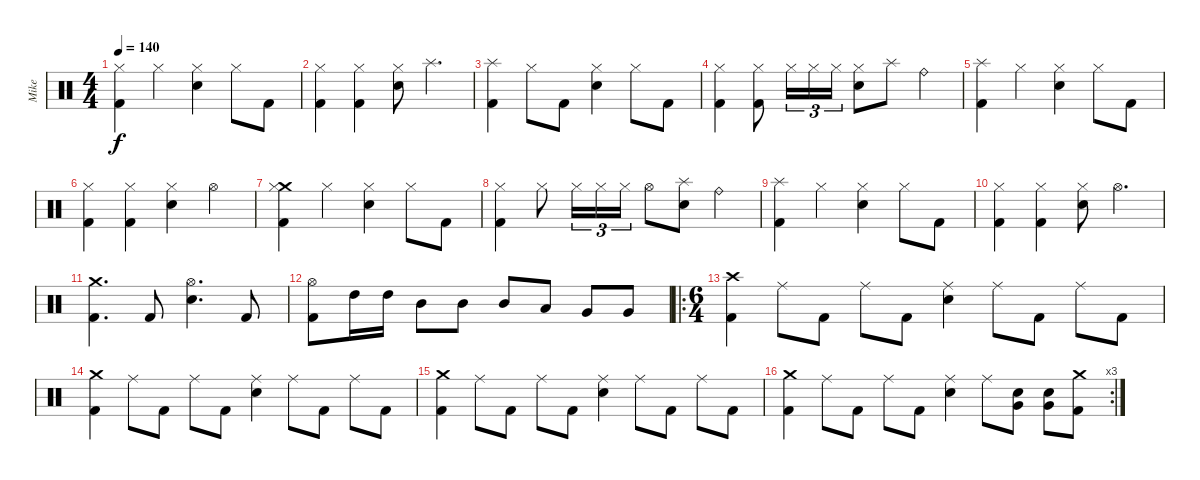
\track ("Mike" "Mike") {instrument percussion}
\staff {score}
\articulation defaults
\ts (4 4)
\tempo 140
\clef neutral
\ks c
("Kick (hit) 2" "Hi-Hat (closed)").4{dy f} "Hi-Hat (closed)".4 ("Electric Snare (hit)" "Hi-Hat (closed)").4 "Hi-Hat (closed)".8 "Kick (hit) 2".8 |
("Kick (hit) 2" "Hi-Hat (closed)").4 ("Kick (hit) 2" "Hi-Hat (closed)").4 ("Electric Snare (hit)" "Hi-Hat (closed)").8 "Splash (hit)".4{d} |
("Kick (hit) 2" "Splash (hit)").4 "Hi-Hat (closed)".8 "Kick (hit) 2".8 ("Electric Snare (hit)" "Hi-Hat (closed)").4 "Hi-Hat (closed)".8 "Kick (hit) 2".8 |
("Kick (hit) 2" "Hi-Hat (closed)").4 ("Kick (hit) 2" "Hi-Hat (closed)").8 "Hi-Hat (closed)".16{tu (3 2)} "Hi-Hat (closed)".16{tu (3 2)} "Hi-Hat (closed)".16{tu (3 2)} ("Electric Snare (hit)" "Hi-Hat (closed)").8 "Splash (hit)".8 "Ride (bell)".4 |
("Kick (hit) 2" "Splash (hit)").4 "Hi-Hat (closed)".4 ("Electric Snare (hit)" "Hi-Hat (closed)").4 "Hi-Hat (closed)".8 "Kick (hit) 2".8 |
("Kick (hit) 2" "Hi-Hat (closed)").4 ("Kick (hit) 2" "Hi-Hat (closed)").4 ("Electric Snare (hit)" "Hi-Hat (closed)").4 "Hi-Hat (open)".4 |
("Kick (hit) 2" "Crash medium (hit)" "Hi-Hat (closed)").4 "Hi-Hat (closed)".4 ("Electric Snare (hit)" "Hi-Hat (closed)").4 "Hi-Hat (closed)".8 "Kick (hit) 2".8 |
("Kick (hit) 2" "Hi-Hat (closed)").4 "Hi-Hat (closed)".8 "Hi-Hat (closed)".16{tu (3 2)} "Hi-Hat (closed)".16{tu (3 2)} "Hi-Hat (closed)".16{tu (3 2)} "Hi-Hat (open)".8 ("Electric Snare (hit)" "Splash (hit)").8 "Ride (bell)".4 |
("Kick (hit) 2" "Splash (hit)").4 "Hi-Hat (closed)".4 ("Electric Snare (hit)" "Hi-Hat (closed)").4 "Hi-Hat (closed)".8 "Kick (hit) 2".8 |
("Kick (hit) 2" "Hi-Hat (closed)").4 ("Kick (hit) 2" "Hi-Hat (closed)").4 ("Electric Snare (hit)" "Hi-Hat (closed)").8 "Hi-Hat (open)".4{d} |
("Kick (hit) 2" "Crash medium (hit)").4{d} "Kick (hit) 2".8 ("Electric Snare (hit)" "Hi-Hat (open)").4{d} "Kick (hit) 2".8 |
("Kick (hit) 2" "Hi-Hat (open)").8 "High Tom (hit)".16 "High Tom (hit)".16 "Mid Tom (hit)".8 "Mid Tom (hit)".8 "Mid Tom (hit)".8 "Low Tom (hit)".8 "Very Low Tom (hit)".8 "Very Low Tom (hit)".8 |
\ro
\ts (6 4)
("Kick (hit) 2" "Crash high (hit)").4 "Ride (middle)".8 "Kick (hit) 2".8 "Ride (middle)".8 "Kick (hit) 2".8 ("Electric Snare (hit)" "Ride (middle)").4 "Ride (middle)".8 "Kick (hit) 2".8 "Ride (middle)".8 "Kick (hit) 2".8 |
("Kick (hit) 2" "Crash medium (hit)").4 "Ride (middle)".8 "Kick (hit) 2".8 "Ride (middle)".8 "Kick (hit) 2".8 ("Electric Snare (hit)" "Ride (middle)").4 "Ride (middle)".8 "Kick (hit) 2".8 "Ride (middle)".8 "Kick (hit) 2".8 |
("Kick (hit) 2" "Crash medium (hit)").4 "Ride (middle)".8 "Kick (hit) 2".8 "Ride (middle)".8 "Kick (hit) 2".8 ("Electric Snare (hit)" "Ride (middle)").4 "Ride (middle)".8 "Kick (hit) 2".8 "Ride (middle)".8 "Kick (hit) 2".8 |
\rc 3
("Kick (hit) 2" "Crash medium (hit)").4 "Ride (middle)".8 "Kick (hit) 2".8 "Ride (middle)".8 "Kick (hit) 2".8 ("Electric Snare (hit)" "Ride (middle)").4 "Ride (middle)".8 ("Electric Snare (hit)" "Very Low Tom (hit)").8 ("Electric Snare (hit)" "Very Low Tom (hit)").8 ("Kick (hit) 2" "Crash medium (hit)").8
